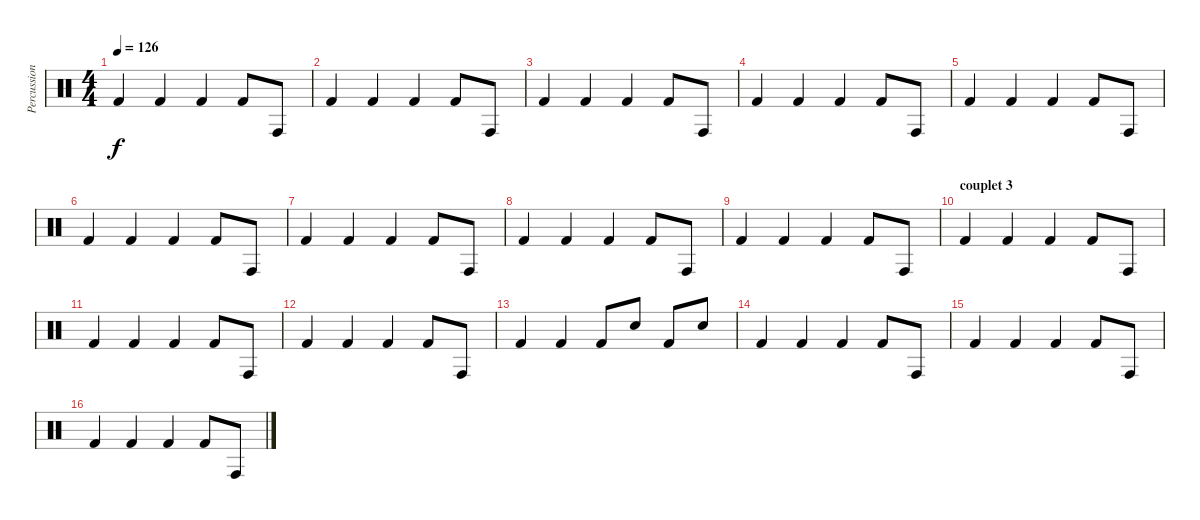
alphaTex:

\track ("Percussions" "Percussion") {instrument percussion}
\staff {score}
\articulation defaults
\ts (4 4)
\tempo 126
\clef neutral
\ks c "Kick (hit) 2".4{dy f} "Kick (hit) 2".4 "Kick (hit) 2".4 "Kick (hit) 2".8 "Conga high (hit)".8
|
"Kick (hit) 2".4 "Kick (hit) 2".4 "Kick (hit) 2".4 "Kick (hit) 2".8 "Conga high (hit)".8 |
"Kick (hit) 2".4 "Kick (hit) 2".4 "Kick (hit) 2".4 "Kick (hit) 2".8 "Conga high (hit)".8 |
"Kick (hit) 2".4 "Kick (hit) 2".4 "Kick (hit) 2".4 "Kick (hit) 2".8 "Conga high (hit)".8 |
"Kick (hit) 2".4 "Kick (hit) 2".4 "Kick (hit) 2".4 "Kick (hit) 2".8 "Conga high (hit)".8 |
"Kick (hit) 2".4 "Kick (hit) 2".4 "Kick (hit) 2".4 "Kick (hit) 2".8 "Conga high (hit)".8 |
"Kick (hit) 2".4 "Kick (hit) 2".4 "Kick (hit) 2".4 "Kick (hit) 2".8 "Conga high (hit)".8 |
"Kick (hit) 2".4 "Kick (hit) 2".4 "Kick (hit) 2".4 "Kick (hit) 2".8 "Conga high (hit)".8 |
"Kick (hit) 2".4 "Kick (hit) 2".4 "Kick (hit) 2".4 "Kick (hit) 2".8 "Conga high (hit)".8 |
\section ("" "couplet 3")
"Kick (hit) 2".4 "Kick (hit) 2".4 "Kick (hit) 2".4 "Kick (hit) 2".8 "Conga high (hit)".8 |
"Kick (hit) 2".4 "Kick (hit) 2".4 "Kick (hit) 2".4 "Kick (hit) 2".8 "Conga high (hit)".8 |
"Kick (hit) 2".4 "Kick (hit) 2".4 "Kick (hit) 2".4 "Kick (hit) 2".8 "Conga high (hit)".8 |
"Kick (hit) 2".4 "Kick (hit) 2".4 "Kick (hit) 2".8 "Electric Snare (hit)".8 "Kick (hit) 2".8 "Electric Snare (hit)".8 |
"Kick (hit) 2".4 "Kick (hit) 2".4 "Kick (hit) 2".4 "Kick (hit) 2".8 "Conga high (hit)".8 |
"Kick (hit) 2".4 "Kick (hit) 2".4 "Kick (hit) 2".4 "Kick (hit) 2".8 "Conga high (hit)".8 |
"Kick (hit) 2".4 "Kick (hit) 2".4 "Kick (hit) 2".4 "Kick (hit) 2".8 "Conga high (hit)".8
